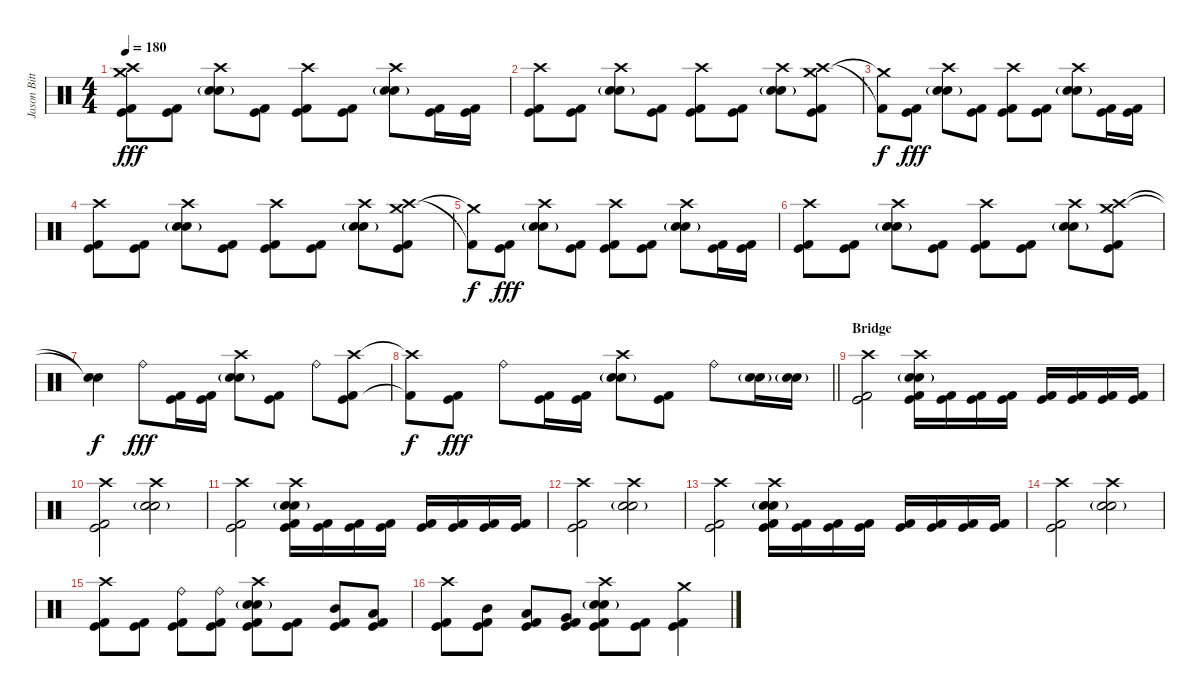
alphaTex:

\track ("Jason Bittner" "Jason Bitt") {instrument percussion}
\staff {score}
\articulation defaults
\ts (4 4)
\tempo 180
\clef neutral
\ks c
("Crash medium (hit)" "Crash high (hit)" "Kick (hit)" "Kick (hit) 2").8{dy fff} ("Kick (hit)" "Kick (hit) 2").8 ("Crash high (hit)" "Snare (hit) 2"{g} "Electric Snare (hit)").8 ("Kick (hit)" "Kick (hit) 2").8 ("Crash high (hit)" "Kick (hit)" "Kick (hit) 2").8 ("Kick (hit)" "Kick (hit) 2").8 ("Crash high (hit)" "Snare (hit) 2"{g} "Electric Snare (hit)").8 ("Kick (hit)" "Kick (hit) 2").16 ("Kick (hit)" "Kick (hit) 2").16 |
("Crash high (hit)" "Kick (hit)" "Kick (hit) 2").8 ("Kick (hit)" "Kick (hit) 2").8 ("Crash high (hit)" "Snare (hit) 2"{g} "Electric Snare (hit)").8 ("Kick (hit)" "Kick (hit) 2").8 ("Crash high (hit)" "Kick (hit)" "Kick (hit) 2").8 ("Kick (hit)" "Kick (hit) 2").8 ("Crash high (hit)" "Snare (hit) 2"{g} "Electric Snare (hit)").8 ("Crash medium (hit)" "Crash high (hit)" "Kick (hit)" "Kick (hit) 2").8 |
("Crash medium (hit)"{t} "Kick (hit) 2"{t}).8{dy f} ("Kick (hit)" "Kick (hit) 2").8{dy fff} ("Crash high (hit)" "Snare (hit) 2"{g} "Electric Snare (hit)").8 ("Kick (hit)" "Kick (hit) 2").8 ("Crash high (hit)" "Kick (hit)" "Kick (hit) 2").8 ("Kick (hit)" "Kick (hit) 2").8 ("Crash high (hit)" "Snare (hit) 2"{g} "Electric Snare (hit)").8 ("Kick (hit)" "Kick (hit) 2").16 ("Kick (hit)" "Kick (hit) 2").16 |
("Crash high (hit)" "Kick (hit)" "Kick (hit) 2").8 ("Kick (hit)" "Kick (hit) 2").8 ("Crash high (hit)" "Snare (hit) 2"{g} "Electric Snare (hit)").8 ("Kick (hit)" "Kick (hit) 2").8 ("Crash high (hit)" "Kick (hit)" "Kick (hit) 2").8 ("Kick (hit)" "Kick (hit) 2").8 ("Crash high (hit)" "Snare (hit) 2"{g} "Electric Snare (hit)").8 ("Crash medium (hit)" "Crash high (hit)" "Kick (hit)" "Kick (hit) 2").8 |
("Crash medium (hit)"{t} "Kick (hit) 2"{t}).8{dy f} ("Kick (hit)" "Kick (hit) 2").8{dy fff} ("Crash high (hit)" "Snare (hit) 2"{g} "Electric Snare (hit)").8 ("Kick (hit)" "Kick (hit) 2").8 ("Crash high (hit)" "Kick (hit)" "Kick (hit) 2").8 ("Kick (hit)" "Kick (hit) 2").8 ("Crash high (hit)" "Snare (hit) 2"{g} "Electric Snare (hit)").8 ("Kick (hit)" "Kick (hit) 2").16 ("Kick (hit)" "Kick (hit) 2").16 |
("Crash high (hit)" "Kick (hit)" "Kick (hit) 2").8 ("Kick (hit)" "Kick (hit) 2").8 ("Crash high (hit)" "Snare (hit) 2"{g} "Electric Snare (hit)").8 ("Kick (hit)" "Kick (hit) 2").8 ("Crash high (hit)" "Kick (hit)" "Kick (hit) 2").8 ("Kick (hit)" "Kick (hit) 2").8 ("Crash high (hit)" "Snare (hit) 2"{g} "Electric Snare (hit)").8 ("Crash medium (hit)" "Crash high (hit)" "Kick (hit)" "Kick (hit) 2").8 |
("Snare (hit)"{t} "Snare (hit)"{t}).4{dy f} "Ride (bell)".8{dy fff} ("Kick (hit)" "Kick (hit) 2").16 ("Kick (hit)" "Kick (hit) 2").16 ("Crash high (hit)" "Snare (hit) 2"{g} "Electric Snare (hit)").8 ("Kick (hit)" "Kick (hit) 2").8 "Ride (bell)".8 ("Crash high (hit)" "Kick (hit)" "Kick (hit) 2").8 |
\barLineRight lightlight
("Crash high (hit)"{t} "Kick (hit) 2"{t}).8{dy f} ("Kick (hit)" "Kick (hit) 2").8{dy fff} "Ride (bell)".8 ("Kick (hit)" "Kick (hit) 2").16 ("Kick (hit)" "Kick (hit) 2").16 ("Crash high (hit)" "Snare (hit) 2"{g} "Electric Snare (hit)").8 ("Kick (hit)" "Kick (hit) 2").8 "Ride (bell)".8 ("Snare (hit) 2"{g} "Electric Snare (hit)").16 ("Snare (hit) 2"{g} "Electric Snare (hit)").16 |
\section ("" "Bridge")
("Crash high (hit)" "Kick (hit)" "Kick (hit) 2").2 ("Crash high (hit)" "Snare (hit) 2"{g} "Electric Snare (hit)" "Kick (hit)" "Kick (hit) 2").16 ("Kick (hit)" "Kick (hit) 2").16 ("Kick (hit)" "Kick (hit) 2").16 ("Kick (hit)" "Kick (hit) 2").16 ("Kick (hit)" "Kick (hit) 2").16 ("Kick (hit)" "Kick (hit) 2").16 ("Kick (hit)" "Kick (hit) 2").16 ("Kick (hit)" "Kick (hit) 2").16 |
("Crash high (hit)" "Kick (hit)" "Kick (hit) 2").2 ("Crash high (hit)" "Snare (hit) 2"{g} "Electric Snare (hit)").2 |
("Crash high (hit)" "Kick (hit)" "Kick (hit) 2").2 ("Crash high (hit)" "Snare (hit) 2"{g} "Electric Snare (hit)" "Kick (hit)" "Kick (hit) 2").16 ("Kick (hit)" "Kick (hit) 2").16 ("Kick (hit)" "Kick (hit) 2").16 ("Kick (hit)" "Kick (hit) 2").16 ("Kick (hit)" "Kick (hit) 2").16 ("Kick (hit)" "Kick (hit) 2").16 ("Kick (hit)" "Kick (hit) 2").16 ("Kick (hit)" "Kick (hit) 2").16 |
("Crash high (hit)" "Kick (hit)" "Kick (hit) 2").2 ("Crash high (hit)" "Snare (hit) 2"{g} "Electric Snare (hit)").2 |
("Crash high (hit)" "Kick (hit)" "Kick (hit) 2").2 ("Crash high (hit)" "Snare (hit) 2"{g} "Electric Snare (hit)" "Kick (hit)" "Kick (hit) 2").16 ("Kick (hit)" "Kick (hit) 2").16 ("Kick (hit)" "Kick (hit) 2").16 ("Kick (hit)" "Kick (hit) 2").16 ("Kick (hit)" "Kick (hit) 2").16 ("Kick (hit)" "Kick (hit) 2").16 ("Kick (hit)" "Kick (hit) 2").16 ("Kick (hit)" "Kick (hit) 2").16 |
("Crash high (hit)" "Kick (hit)" "Kick (hit) 2").2 ("Crash high (hit)" "Snare (hit) 2"{g} "Electric Snare (hit)").2 |
("Crash high (hit)" "Kick (hit)" "Kick (hit) 2").8 ("Kick (hit)" "Kick (hit) 2").8 ("Ride (bell)" "Kick (hit)" "Kick (hit) 2").8 ("Ride (bell)" "Kick (hit)" "Kick (hit) 2").8 ("Crash high (hit)" "Snare (hit) 2"{g} "Electric Snare (hit)" "Kick (hit)" "Kick (hit) 2").8 ("Kick (hit)" "Kick (hit) 2").8 ("Mid Tom (hit)" "Kick (hit)" "Kick (hit) 2").8 ("Low Tom (hit)" "Kick (hit)" "Kick (hit) 2").8 |
("Crash high (hit)" "Kick (hit)" "Kick (hit) 2").8 ("Mid Tom (hit)" "Kick (hit)" "Kick (hit) 2").8 ("Low Tom (hit)" "Kick (hit)" "Kick (hit) 2").8 ("Very Low Tom (hit)" "Kick (hit)" "Kick (hit) 2").8 ("Crash high (hit)" "Snare (hit) 2"{g} "Electric Snare (hit)" "Kick (hit)" "Kick (hit) 2").8 ("Kick (hit)" "Kick (hit) 2").8 ("Crash medium (hit)" "Kick (hit)" "Kick (hit) 2").4
